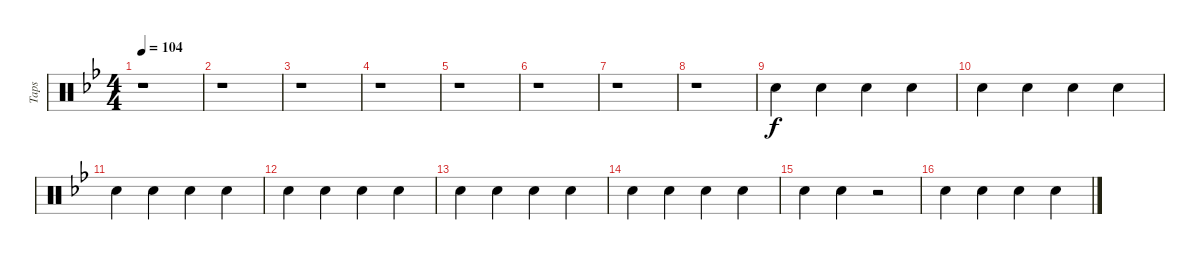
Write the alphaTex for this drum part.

\track ("Taps" "Taps") {instrument percussion}
\staff {score}
\articulation defaults
\ts (4 4)
\tempo 104
\clef neutral
\ks bb
r.1{dy f} |
r.1 |
r.1 |
r.1 |
r.1 |
r.1 |
r.1 |
r.1 |
"Hand Clap (hit)".4 "Hand Clap (hit)".4 "Hand Clap (hit)".4 "Hand Clap (hit)".4 |
"Hand Clap (hit)".4 "Hand Clap (hit)".4 "Hand Clap (hit)".4 "Hand Clap (hit)".4 |
"Hand Clap (hit)".4 "Hand Clap (hit)".4 "Hand Clap (hit)".4 "Hand Clap (hit)".4 |
"Hand Clap (hit)".4 "Hand Clap (hit)".4 "Hand Clap (hit)".4 "Hand Clap (hit)".4 |
"Hand Clap (hit)".4 "Hand Clap (hit)".4 "Hand Clap (hit)".4 "Hand Clap (hit)".4 |
"Hand Clap (hit)".4 "Hand Clap (hit)".4 "Hand Clap (hit)".4 "Hand Clap (hit)".4 |
"Hand Clap (hit)".4 "Hand Clap (hit)".4 r.2 |
"Hand Clap (hit)".4 "Hand Clap (hit)".4 "Hand Clap (hit)".4 "Hand Clap (hit)".4
